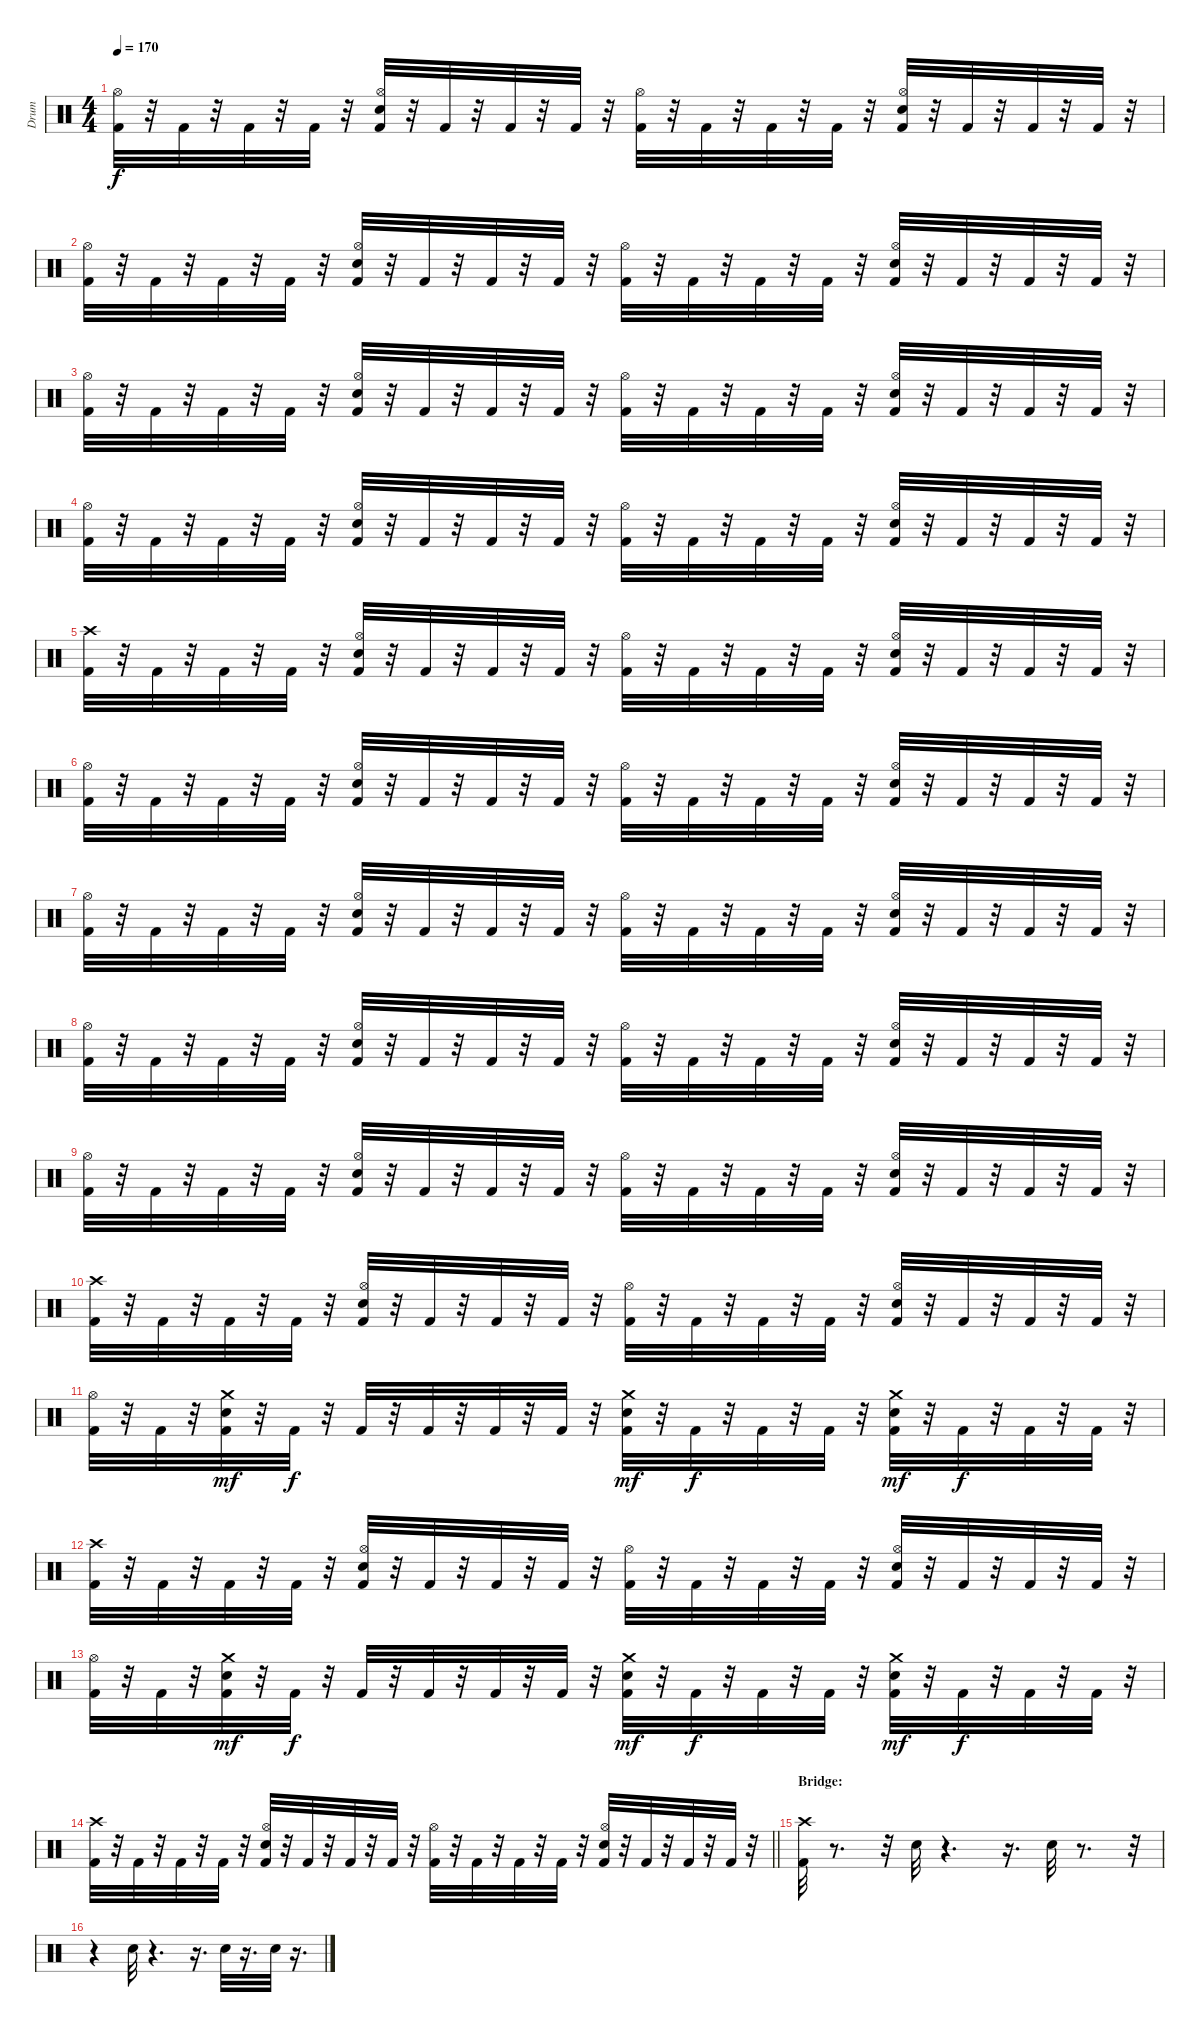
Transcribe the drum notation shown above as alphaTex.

\track ("Drum" "Drum") {instrument percussion}
\staff {score}
\articulation defaults
\ts (4 4)
\tempo 170
\clef neutral
\ks c
("Kick (hit) 2" "Hi-Hat (open)").32{dy f} r.32 "Kick (hit) 2".32 r.32 "Kick (hit) 2".32 r.32 "Kick (hit) 2".32 r.32 ("Kick (hit) 2" "Hi-Hat (open)" "Snare (hit) 2").32 r.32 "Kick (hit) 2".32 r.32 "Kick (hit) 2".32 r.32 "Kick (hit) 2".32 r.32 ("Kick (hit) 2" "Hi-Hat (open)").32 r.32 "Kick (hit) 2".32 r.32 "Kick (hit) 2".32 r.32 "Kick (hit) 2".32 r.32 ("Kick (hit) 2" "Hi-Hat (open)" "Snare (hit) 2").32 r.32 "Kick (hit) 2".32 r.32 "Kick (hit) 2".32 r.32 "Kick (hit) 2".32 r.32 |
("Kick (hit) 2" "Hi-Hat (open)").32 r.32 "Kick (hit) 2".32 r.32 "Kick (hit) 2".32 r.32 "Kick (hit) 2".32 r.32 ("Kick (hit) 2" "Snare (hit) 2" "Hi-Hat (open)").32 r.32 "Kick (hit) 2".32 r.32 "Kick (hit) 2".32 r.32 "Kick (hit) 2".32 r.32 ("Kick (hit) 2" "Hi-Hat (open)").32 r.32 "Kick (hit) 2".32 r.32 "Kick (hit) 2".32 r.32 "Kick (hit) 2".32 r.32 ("Kick (hit) 2" "Snare (hit) 2" "Hi-Hat (open)").32 r.32 "Kick (hit) 2".32 r.32 "Kick (hit) 2".32 r.32 "Kick (hit) 2".32 r.32 |
("Kick (hit) 2" "Hi-Hat (open)").32 r.32 "Kick (hit) 2".32 r.32 "Kick (hit) 2".32 r.32 "Kick (hit) 2".32 r.32 ("Kick (hit) 2" "Hi-Hat (open)" "Snare (hit) 2").32 r.32 "Kick (hit) 2".32 r.32 "Kick (hit) 2".32 r.32 "Kick (hit) 2".32 r.32 ("Kick (hit) 2" "Hi-Hat (open)").32 r.32 "Kick (hit) 2".32 r.32 "Kick (hit) 2".32 r.32 "Kick (hit) 2".32 r.32 ("Kick (hit) 2" "Hi-Hat (open)" "Snare (hit) 2").32 r.32 "Kick (hit) 2".32 r.32 "Kick (hit) 2".32 r.32 "Kick (hit) 2".32 r.32 |
("Kick (hit) 2" "Hi-Hat (open)").32 r.32 "Kick (hit) 2".32 r.32 "Kick (hit) 2".32 r.32 "Kick (hit) 2".32 r.32 ("Kick (hit) 2" "Snare (hit) 2" "Hi-Hat (open)").32 r.32 "Kick (hit) 2".32 r.32 "Kick (hit) 2".32 r.32 "Kick (hit) 2".32 r.32 ("Kick (hit) 2" "Hi-Hat (open)").32 r.32 "Kick (hit) 2".32 r.32 "Kick (hit) 2".32 r.32 "Kick (hit) 2".32 r.32 ("Kick (hit) 2" "Snare (hit) 2" "Hi-Hat (open)").32 r.32 "Kick (hit) 2".32 r.32 "Kick (hit) 2".32 r.32 "Kick (hit) 2".32 r.32 |
("Kick (hit) 2" "Crash high (hit)").32 r.32 "Kick (hit) 2".32 r.32 "Kick (hit) 2".32 r.32 "Kick (hit) 2".32 r.32 ("Kick (hit) 2" "Snare (hit) 2" "Hi-Hat (open)").32 r.32 "Kick (hit) 2".32 r.32 "Kick (hit) 2".32 r.32 "Kick (hit) 2".32 r.32 ("Kick (hit) 2" "Hi-Hat (open)").32 r.32 "Kick (hit) 2".32 r.32 "Kick (hit) 2".32 r.32 "Kick (hit) 2".32 r.32 ("Kick (hit) 2" "Snare (hit) 2" "Hi-Hat (open)").32 r.32 "Kick (hit) 2".32 r.32 "Kick (hit) 2".32 r.32 "Kick (hit) 2".32 r.32 |
("Kick (hit) 2" "Hi-Hat (open)").32 r.32 "Kick (hit) 2".32 r.32 "Kick (hit) 2".32 r.32 "Kick (hit) 2".32 r.32 ("Kick (hit) 2" "Hi-Hat (open)" "Snare (hit) 2").32 r.32 "Kick (hit) 2".32 r.32 "Kick (hit) 2".32 r.32 "Kick (hit) 2".32 r.32 ("Kick (hit) 2" "Hi-Hat (open)").32 r.32 "Kick (hit) 2".32 r.32 "Kick (hit) 2".32 r.32 "Kick (hit) 2".32 r.32 ("Kick (hit) 2" "Hi-Hat (open)" "Snare (hit) 2").32 r.32 "Kick (hit) 2".32 r.32 "Kick (hit) 2".32 r.32 "Kick (hit) 2".32 r.32 |
("Kick (hit) 2" "Hi-Hat (open)").32 r.32 "Kick (hit) 2".32 r.32 "Kick (hit) 2".32 r.32 "Kick (hit) 2".32 r.32 ("Kick (hit) 2" "Hi-Hat (open)" "Snare (hit) 2").32 r.32 "Kick (hit) 2".32 r.32 "Kick (hit) 2".32 r.32 "Kick (hit) 2".32 r.32 ("Kick (hit) 2" "Hi-Hat (open)").32 r.32 "Kick (hit) 2".32 r.32 "Kick (hit) 2".32 r.32 "Kick (hit) 2".32 r.32 ("Kick (hit) 2" "Hi-Hat (open)" "Snare (hit) 2").32 r.32 "Kick (hit) 2".32 r.32 "Kick (hit) 2".32 r.32 "Kick (hit) 2".32 r.32 |
("Kick (hit) 2" "Hi-Hat (open)").32 r.32 "Kick (hit) 2".32 r.32 "Kick (hit) 2".32 r.32 "Kick (hit) 2".32 r.32 ("Kick (hit) 2" "Snare (hit) 2" "Hi-Hat (open)").32 r.32 "Kick (hit) 2".32 r.32 "Kick (hit) 2".32 r.32 "Kick (hit) 2".32 r.32 ("Kick (hit) 2" "Hi-Hat (open)").32 r.32 "Kick (hit) 2".32 r.32 "Kick (hit) 2".32 r.32 "Kick (hit) 2".32 r.32 ("Kick (hit) 2" "Snare (hit) 2" "Hi-Hat (open)").32 r.32 "Kick (hit) 2".32 r.32 "Kick (hit) 2".32 r.32 "Kick (hit) 2".32 r.32 |
("Kick (hit) 2" "Hi-Hat (open)").32 r.32 "Kick (hit) 2".32 r.32 "Kick (hit) 2".32 r.32 "Kick (hit) 2".32 r.32 ("Kick (hit) 2" "Snare (hit) 2" "Hi-Hat (open)").32 r.32 "Kick (hit) 2".32 r.32 "Kick (hit) 2".32 r.32 "Kick (hit) 2".32 r.32 ("Kick (hit) 2" "Hi-Hat (open)").32 r.32 "Kick (hit) 2".32 r.32 "Kick (hit) 2".32 r.32 "Kick (hit) 2".32 r.32 ("Kick (hit) 2" "Snare (hit) 2" "Hi-Hat (open)").32 r.32 "Kick (hit) 2".32 r.32 "Kick (hit) 2".32 r.32 "Kick (hit) 2".32 r.32 |
("Kick (hit) 2" "Crash high (hit)").32 r.32 "Kick (hit) 2".32 r.32 "Kick (hit) 2".32 r.32 "Kick (hit) 2".32 r.32 ("Kick (hit) 2" "Hi-Hat (open)" "Snare (hit) 2").32 r.32 "Kick (hit) 2".32 r.32 "Kick (hit) 2".32 r.32 "Kick (hit) 2".32 r.32 ("Kick (hit) 2" "Hi-Hat (open)").32 r.32 "Kick (hit) 2".32 r.32 "Kick (hit) 2".32 r.32 "Kick (hit) 2".32 r.32 ("Kick (hit) 2" "Hi-Hat (open)" "Snare (hit) 2").32 r.32 "Kick (hit) 2".32 r.32 "Kick (hit) 2".32 r.32 "Kick (hit) 2".32 r.32 |
("Kick (hit) 2" "Hi-Hat (open)").32 r.32 "Kick (hit) 2".32 r.32 ("Crash medium (hit)" "Snare (hit) 2" "Kick (hit) 2").32{dy mf} r.32 "Kick (hit) 2".32{dy f} r.32 "Kick (hit) 2".32 r.32 "Kick (hit) 2".32 r.32 "Kick (hit) 2".32 r.32 "Kick (hit) 2".32 r.32 ("Crash medium (hit)" "Snare (hit) 2" "Kick (hit) 2").32{dy mf} r.32 "Kick (hit) 2".32{dy f} r.32 "Kick (hit) 2".32 r.32 "Kick (hit) 2".32 r.32 ("Crash medium (hit)" "Snare (hit) 2" "Kick (hit) 2").32{dy mf} r.32 "Kick (hit) 2".32{dy f} r.32 "Kick (hit) 2".32 r.32 "Kick (hit) 2".32 r.32 |
("Kick (hit) 2" "Crash high (hit)").32 r.32 "Kick (hit) 2".32 r.32 "Kick (hit) 2".32 r.32 "Kick (hit) 2".32 r.32 ("Kick (hit) 2" "Snare (hit) 2" "Hi-Hat (open)").32 r.32 "Kick (hit) 2".32 r.32 "Kick (hit) 2".32 r.32 "Kick (hit) 2".32 r.32 ("Kick (hit) 2" "Hi-Hat (open)").32 r.32 "Kick (hit) 2".32 r.32 "Kick (hit) 2".32 r.32 "Kick (hit) 2".32 r.32 ("Kick (hit) 2" "Snare (hit) 2" "Hi-Hat (open)").32 r.32 "Kick (hit) 2".32 r.32 "Kick (hit) 2".32 r.32 "Kick (hit) 2".32 r.32 |
("Hi-Hat (open)" "Kick (hit) 2").32 r.32 "Kick (hit) 2".32 r.32 ("Crash medium (hit)" "Snare (hit) 2" "Kick (hit) 2").32{dy mf} r.32 "Kick (hit) 2".32{dy f} r.32 "Kick (hit) 2".32 r.32 "Kick (hit) 2".32 r.32 "Kick (hit) 2".32 r.32 "Kick (hit) 2".32 r.32 ("Crash medium (hit)" "Snare (hit) 2" "Kick (hit) 2").32{dy mf} r.32 "Kick (hit) 2".32{dy f} r.32 "Kick (hit) 2".32 r.32 "Kick (hit) 2".32 r.32 ("Crash medium (hit)" "Kick (hit) 2" "Snare (hit) 2").32{dy mf} r.32 "Kick (hit) 2".32{dy f} r.32 "Kick (hit) 2".32 r.32 "Kick (hit) 2".32 r.32 |
\barLineRight lightlight
("Crash high (hit)" "Kick (hit) 2").32 r.32 "Kick (hit) 2".32 r.32 "Kick (hit) 2".32 r.32 "Kick (hit) 2".32 r.32 ("Kick (hit) 2" "Hi-Hat (open)" "Snare (hit) 2").32 r.32 "Kick (hit) 2".32 r.32 "Kick (hit) 2".32 r.32 "Kick (hit) 2".32 r.32 ("Kick (hit) 2" "Hi-Hat (open)").32 r.32 "Kick (hit) 2".32 r.32 "Kick (hit) 2".32 r.32 "Kick (hit) 2".32 r.32 ("Kick (hit) 2" "Hi-Hat (open)" "Snare (hit) 2").32 r.32 "Kick (hit) 2".32 r.32 "Kick (hit) 2".32 r.32 "Kick (hit) 2".32 r.32 |
\section ("" "Bridge:")
("Kick (hit) 2" "Crash high (hit)").32 r.8{d} r.32 "Snare (hit) 2".32 r.4{d} r.16{d} "Snare (hit) 2".32 r.8{d} r.32 |
r.4 "Snare (hit) 2".32 r.4{d} r.16{d} "Snare (hit) 2".32 r.16{d} "Snare (hit) 2".32 r.16{d}
